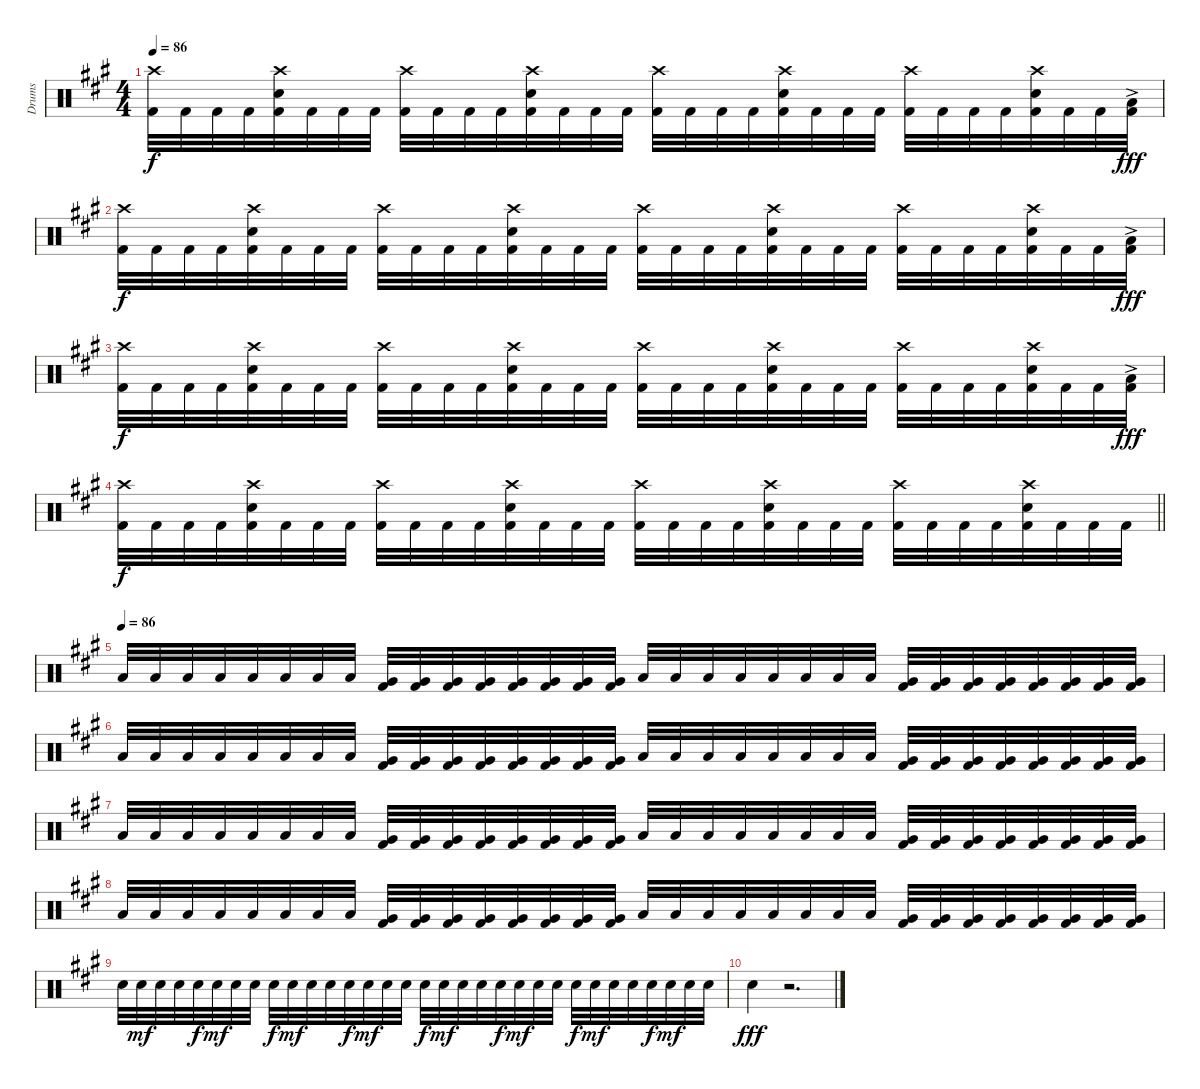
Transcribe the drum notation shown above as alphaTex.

\track ("Drums" "Drums") {instrument percussion}
\staff {score}
\articulation defaults
\ts (4 4)
\tempo 86
\clef neutral
\ks f#minor
("Crash high (hit)" "Kick (hit) 2").32{dy f} "Kick (hit) 2".32 "Kick (hit) 2".32 "Kick (hit) 2".32 ("Crash high (hit)" "Snare (hit) 2" "Kick (hit) 2").32 "Kick (hit) 2".32 "Kick (hit) 2".32 "Kick (hit) 2".32 ("Crash high (hit)" "Kick (hit) 2").32 "Kick (hit) 2".32 "Kick (hit) 2".32 "Kick (hit) 2".32 ("Crash high (hit)" "Snare (hit) 2" "Kick (hit) 2").32 "Kick (hit) 2".32 "Kick (hit) 2".32 "Kick (hit) 2".32 ("Crash high (hit)" "Kick (hit) 2").32 "Kick (hit) 2".32 "Kick (hit) 2".32 "Kick (hit) 2".32 ("Crash high (hit)" "Snare (hit) 2" "Kick (hit) 2").32 "Kick (hit) 2".32 "Kick (hit) 2".32 "Kick (hit) 2".32 ("Crash high (hit)" "Kick (hit) 2").32 "Kick (hit) 2".32 "Kick (hit) 2".32 "Kick (hit) 2".32 ("Crash high (hit)" "Snare (hit) 2" "Kick (hit) 2").32 "Kick (hit) 2".32 "Kick (hit) 2".32 ("Low Tom (hit)"{ac} "Kick (hit) 2").32{dy fff} |
("Crash high (hit)" "Kick (hit) 2").32{dy f} "Kick (hit) 2".32 "Kick (hit) 2".32 "Kick (hit) 2".32 ("Crash high (hit)" "Snare (hit) 2" "Kick (hit) 2").32 "Kick (hit) 2".32 "Kick (hit) 2".32 "Kick (hit) 2".32 ("Crash high (hit)" "Kick (hit) 2").32 "Kick (hit) 2".32 "Kick (hit) 2".32 "Kick (hit) 2".32 ("Crash high (hit)" "Snare (hit) 2" "Kick (hit) 2").32 "Kick (hit) 2".32 "Kick (hit) 2".32 "Kick (hit) 2".32 ("Crash high (hit)" "Kick (hit) 2").32 "Kick (hit) 2".32 "Kick (hit) 2".32 "Kick (hit) 2".32 ("Crash high (hit)" "Snare (hit) 2" "Kick (hit) 2").32 "Kick (hit) 2".32 "Kick (hit) 2".32 "Kick (hit) 2".32 ("Crash high (hit)" "Kick (hit) 2").32 "Kick (hit) 2".32 "Kick (hit) 2".32 "Kick (hit) 2".32 ("Crash high (hit)" "Snare (hit) 2" "Kick (hit) 2").32 "Kick (hit) 2".32 "Kick (hit) 2".32 ("Low Tom (hit)"{ac} "Kick (hit) 2").32{dy fff} |
("Crash high (hit)" "Kick (hit) 2").32{dy f} "Kick (hit) 2".32 "Kick (hit) 2".32 "Kick (hit) 2".32 ("Crash high (hit)" "Snare (hit) 2" "Kick (hit) 2").32 "Kick (hit) 2".32 "Kick (hit) 2".32 "Kick (hit) 2".32 ("Crash high (hit)" "Kick (hit) 2").32 "Kick (hit) 2".32 "Kick (hit) 2".32 "Kick (hit) 2".32 ("Crash high (hit)" "Snare (hit) 2" "Kick (hit) 2").32 "Kick (hit) 2".32 "Kick (hit) 2".32 "Kick (hit) 2".32 ("Crash high (hit)" "Kick (hit) 2").32 "Kick (hit) 2".32 "Kick (hit) 2".32 "Kick (hit) 2".32 ("Crash high (hit)" "Snare (hit) 2" "Kick (hit) 2").32 "Kick (hit) 2".32 "Kick (hit) 2".32 "Kick (hit) 2".32 ("Crash high (hit)" "Kick (hit) 2").32 "Kick (hit) 2".32 "Kick (hit) 2".32 "Kick (hit) 2".32 ("Crash high (hit)" "Snare (hit) 2" "Kick (hit) 2").32 "Kick (hit) 2".32 "Kick (hit) 2".32 ("Low Tom (hit)"{ac} "Kick (hit) 2").32{dy fff} |
\barLineRight lightlight
("Crash high (hit)" "Kick (hit) 2").32{dy f} "Kick (hit) 2".32 "Kick (hit) 2".32 "Kick (hit) 2".32 ("Crash high (hit)" "Snare (hit) 2" "Kick (hit) 2").32 "Kick (hit) 2".32 "Kick (hit) 2".32 "Kick (hit) 2".32 ("Crash high (hit)" "Kick (hit) 2").32 "Kick (hit) 2".32 "Kick (hit) 2".32 "Kick (hit) 2".32 ("Crash high (hit)" "Snare (hit) 2" "Kick (hit) 2").32 "Kick (hit) 2".32 "Kick (hit) 2".32 "Kick (hit) 2".32 ("Crash high (hit)" "Kick (hit) 2").32 "Kick (hit) 2".32 "Kick (hit) 2".32 "Kick (hit) 2".32 ("Crash high (hit)" "Snare (hit) 2" "Kick (hit) 2").32 "Kick (hit) 2".32 "Kick (hit) 2".32 "Kick (hit) 2".32 ("Crash high (hit)" "Kick (hit) 2").32 "Kick (hit) 2".32 "Kick (hit) 2".32 "Kick (hit) 2".32 ("Crash high (hit)" "Snare (hit) 2" "Kick (hit) 2").32 "Kick (hit) 2".32 "Kick (hit) 2".32 "Kick (hit) 2".32 |
\tempo (86)
"Low Tom (hit)".32 "Low Tom (hit)".32 "Low Tom (hit)".32 "Low Tom (hit)".32 "Low Tom (hit)".32 "Low Tom (hit)".32 "Low Tom (hit)".32 "Low Tom (hit)".32 ("Very Low Tom (hit)" "Kick (hit) 2").32 ("Very Low Tom (hit)" "Kick (hit) 2").32 ("Very Low Tom (hit)" "Kick (hit) 2").32 ("Very Low Tom (hit)" "Kick (hit) 2").32 ("Very Low Tom (hit)" "Kick (hit) 2").32 ("Very Low Tom (hit)" "Kick (hit) 2").32 ("Very Low Tom (hit)" "Kick (hit) 2").32 ("Very Low Tom (hit)" "Kick (hit) 2").32 "Low Tom (hit)".32 "Low Tom (hit)".32 "Low Tom (hit)".32 "Low Tom (hit)".32 "Low Tom (hit)".32 "Low Tom (hit)".32 "Low Tom (hit)".32 "Low Tom (hit)".32 ("Very Low Tom (hit)" "Kick (hit) 2").32 ("Very Low Tom (hit)" "Kick (hit) 2").32 ("Very Low Tom (hit)" "Kick (hit) 2").32 ("Very Low Tom (hit)" "Kick (hit) 2").32 ("Very Low Tom (hit)" "Kick (hit) 2").32 ("Very Low Tom (hit)" "Kick (hit) 2").32 ("Very Low Tom (hit)" "Kick (hit) 2").32 ("Very Low Tom (hit)" "Kick (hit) 2").32 |
"Low Tom (hit)".32 "Low Tom (hit)".32 "Low Tom (hit)".32 "Low Tom (hit)".32 "Low Tom (hit)".32 "Low Tom (hit)".32 "Low Tom (hit)".32 "Low Tom (hit)".32 ("Very Low Tom (hit)" "Kick (hit) 2").32 ("Very Low Tom (hit)" "Kick (hit) 2").32 ("Very Low Tom (hit)" "Kick (hit) 2").32 ("Very Low Tom (hit)" "Kick (hit) 2").32 ("Very Low Tom (hit)" "Kick (hit) 2").32 ("Very Low Tom (hit)" "Kick (hit) 2").32 ("Very Low Tom (hit)" "Kick (hit) 2").32 ("Very Low Tom (hit)" "Kick (hit) 2").32 "Low Tom (hit)".32 "Low Tom (hit)".32 "Low Tom (hit)".32 "Low Tom (hit)".32 "Low Tom (hit)".32 "Low Tom (hit)".32 "Low Tom (hit)".32 "Low Tom (hit)".32 ("Very Low Tom (hit)" "Kick (hit) 2").32 ("Very Low Tom (hit)" "Kick (hit) 2").32 ("Very Low Tom (hit)" "Kick (hit) 2").32 ("Very Low Tom (hit)" "Kick (hit) 2").32 ("Very Low Tom (hit)" "Kick (hit) 2").32 ("Very Low Tom (hit)" "Kick (hit) 2").32 ("Very Low Tom (hit)" "Kick (hit) 2").32 ("Very Low Tom (hit)" "Kick (hit) 2").32 |
"Low Tom (hit)".32 "Low Tom (hit)".32 "Low Tom (hit)".32 "Low Tom (hit)".32 "Low Tom (hit)".32 "Low Tom (hit)".32 "Low Tom (hit)".32 "Low Tom (hit)".32 ("Very Low Tom (hit)" "Kick (hit) 2").32 ("Very Low Tom (hit)" "Kick (hit) 2").32 ("Very Low Tom (hit)" "Kick (hit) 2").32 ("Very Low Tom (hit)" "Kick (hit) 2").32 ("Very Low Tom (hit)" "Kick (hit) 2").32 ("Very Low Tom (hit)" "Kick (hit) 2").32 ("Very Low Tom (hit)" "Kick (hit) 2").32 ("Very Low Tom (hit)" "Kick (hit) 2").32 "Low Tom (hit)".32 "Low Tom (hit)".32 "Low Tom (hit)".32 "Low Tom (hit)".32 "Low Tom (hit)".32 "Low Tom (hit)".32 "Low Tom (hit)".32 "Low Tom (hit)".32 ("Very Low Tom (hit)" "Kick (hit) 2").32 ("Very Low Tom (hit)" "Kick (hit) 2").32 ("Very Low Tom (hit)" "Kick (hit) 2").32 ("Very Low Tom (hit)" "Kick (hit) 2").32 ("Very Low Tom (hit)" "Kick (hit) 2").32 ("Very Low Tom (hit)" "Kick (hit) 2").32 ("Very Low Tom (hit)" "Kick (hit) 2").32 ("Very Low Tom (hit)" "Kick (hit) 2").32 |
"Low Tom (hit)".32 "Low Tom (hit)".32 "Low Tom (hit)".32 "Low Tom (hit)".32 "Low Tom (hit)".32 "Low Tom (hit)".32 "Low Tom (hit)".32 "Low Tom (hit)".32 ("Very Low Tom (hit)" "Kick (hit) 2").32 ("Very Low Tom (hit)" "Kick (hit) 2").32 ("Very Low Tom (hit)" "Kick (hit) 2").32 ("Very Low Tom (hit)" "Kick (hit) 2").32 ("Very Low Tom (hit)" "Kick (hit) 2").32 ("Very Low Tom (hit)" "Kick (hit) 2").32 ("Very Low Tom (hit)" "Kick (hit) 2").32 ("Very Low Tom (hit)" "Kick (hit) 2").32 "Low Tom (hit)".32 "Low Tom (hit)".32 "Low Tom (hit)".32 "Low Tom (hit)".32 "Low Tom (hit)".32 "Low Tom (hit)".32 "Low Tom (hit)".32 "Low Tom (hit)".32 ("Very Low Tom (hit)" "Kick (hit) 2").32 ("Very Low Tom (hit)" "Kick (hit) 2").32 ("Very Low Tom (hit)" "Kick (hit) 2").32 ("Very Low Tom (hit)" "Kick (hit) 2").32 ("Very Low Tom (hit)" "Kick (hit) 2").32 ("Very Low Tom (hit)" "Kick (hit) 2").32 ("Very Low Tom (hit)" "Kick (hit) 2").32 ("Very Low Tom (hit)" "Kick (hit) 2").32 |
"Snare (hit) 2".32 "Snare (hit) 2".32{dy mf} "Snare (hit) 2".32 "Snare (hit) 2".32 "Snare (hit) 2".32{dy f} "Snare (hit) 2".32{dy mf} "Snare (hit) 2".32 "Snare (hit) 2".32 "Snare (hit) 2".32{dy f} "Snare (hit) 2".32{dy mf} "Snare (hit) 2".32 "Snare (hit) 2".32 "Snare (hit) 2".32{dy f} "Snare (hit) 2".32{dy mf} "Snare (hit) 2".32 "Snare (hit) 2".32 "Snare (hit) 2".32{dy f} "Snare (hit) 2".32{dy mf} "Snare (hit) 2".32 "Snare (hit) 2".32 "Snare (hit) 2".32{dy f} "Snare (hit) 2".32{dy mf} "Snare (hit) 2".32 "Snare (hit) 2".32 "Snare (hit) 2".32{dy f} "Snare (hit) 2".32{dy mf} "Snare (hit) 2".32 "Snare (hit) 2".32 "Snare (hit) 2".32{dy f} "Snare (hit) 2".32{dy mf} "Snare (hit) 2".32 "Snare (hit) 2".32 |
"Snare (hit) 2".4{dy fff} r.2{d}
